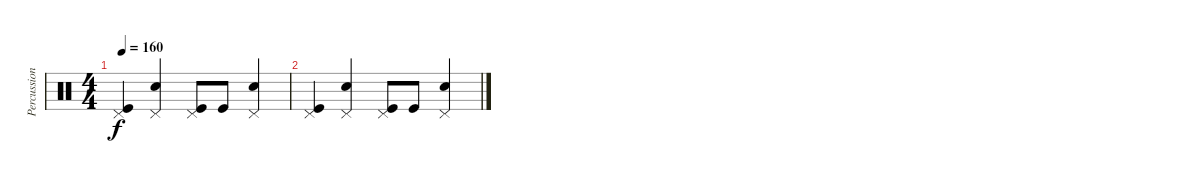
\track ("Percussion" "Percussion") {instrument percussion}
\staff {score}
\articulation defaults
\ts (4 4)
\tempo 160
\clef neutral
\ks c
("Pedal Hi-Hat (hit)" "Kick (hit)").4{dy f} ("Snare (hit) 2" "Pedal Hi-Hat (hit)").4 ("Pedal Hi-Hat (hit)" "Kick (hit)").8 "Kick (hit)".8 ("Snare (hit) 2" "Pedal Hi-Hat (hit)").4 |
("Pedal Hi-Hat (hit)" "Kick (hit)").4 ("Snare (hit) 2" "Pedal Hi-Hat (hit)").4 ("Pedal Hi-Hat (hit)" "Kick (hit)").8 "Kick (hit)".8 ("Snare (hit) 2" "Pedal Hi-Hat (hit)").4
